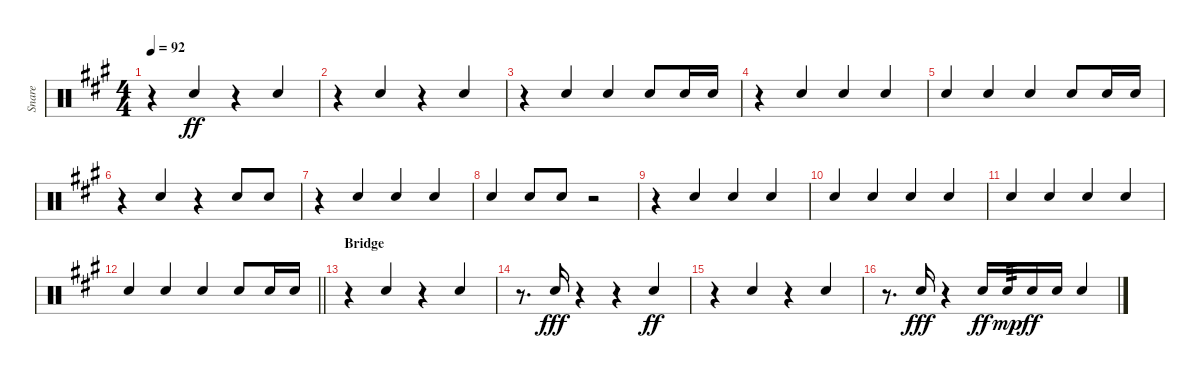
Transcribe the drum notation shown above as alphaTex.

\track ("Snare" "Snare") {instrument percussion}
\staff {score}
\articulation defaults
\ts (4 4)
\tempo 92
\clef neutral
\ks f#minor
r.4{dy ff} "Electric Snare (hit)".4{beam Up} r.4{beam merge} "Electric Snare (hit)".4{beam Up} |
r.4 "Electric Snare (hit)".4{beam Up} r.4{beam merge} "Electric Snare (hit)".4{beam Up} |
r.4 "Electric Snare (hit)".4{beam Up} "Electric Snare (hit)".4{beam Up beam merge} "Electric Snare (hit)".8{beam Up} "Electric Snare (hit)".16{beam Up} "Electric Snare (hit)".16{beam Up} |
r.4 "Electric Snare (hit)".4{beam Up} "Electric Snare (hit)".4{beam Up beam merge} "Electric Snare (hit)".4{beam Up} |
"Electric Snare (hit)".4{beam Up} "Electric Snare (hit)".4{beam Up beam merge} "Electric Snare (hit)".4{beam Up} "Electric Snare (hit)".8{beam Up} "Electric Snare (hit)".16{beam Up} "Electric Snare (hit)".16{beam Up} |
r.4 "Electric Snare (hit)".4{beam Up} r.4{beam merge} "Electric Snare (hit)".8{beam Up} "Electric Snare (hit)".8{beam Up} |
r.4 "Electric Snare (hit)".4{beam Up} "Electric Snare (hit)".4{beam Up beam merge} "Electric Snare (hit)".4{beam Up} |
"Electric Snare (hit)".4{beam Up beam split} "Electric Snare (hit)".8{beam Up} "Electric Snare (hit)".8{beam Up} r.2 |
r.4 "Electric Snare (hit)".4{beam Up} "Electric Snare (hit)".4{beam Up beam merge} "Electric Snare (hit)".4{beam Up} |
"Electric Snare (hit)".4{beam Up} "Electric Snare (hit)".4{beam Up} "Electric Snare (hit)".4{beam Up beam merge} "Electric Snare (hit)".4{beam Up} |
"Electric Snare (hit)".4{beam Up} "Electric Snare (hit)".4{beam Up} "Electric Snare (hit)".4{beam Up beam merge} "Electric Snare (hit)".4{beam Up} |
\barLineRight lightlight "Electric Snare (hit)".4{beam Up} "Electric Snare (hit)".4{beam Up} "Electric Snare (hit)".4{beam Up beam merge} "Electric Snare (hit)".8{beam Up} "Electric Snare (hit)".16{beam Up} "Electric Snare (hit)".16{beam Up}
|
\section ("" "Bridge")
r.4 "Electric Snare (hit)".4{beam Up} r.4{beam merge} "Electric Snare (hit)".4{beam Up} |
r.8{d} "Electric Snare (hit)".16{dy fff beam Up} r.4 r.4{beam merge} "Electric Snare (hit)".4{dy ff beam Up} |
r.4 "Electric Snare (hit)".4{beam Up} r.4{beam merge} "Electric Snare (hit)".4{beam Up} |
r.8{d} "Electric Snare (hit)".16{dy fff beam Up} r.4 "Electric Snare (hit)".16{dy ff beam Up} "Electric Snare (hit)".16{tp 3 dy mp beam Up} "Electric Snare (hit)".16{dy ff beam Up} "Electric Snare (hit)".16{beam Up} "Electric Snare (hit)".4{beam Up}
